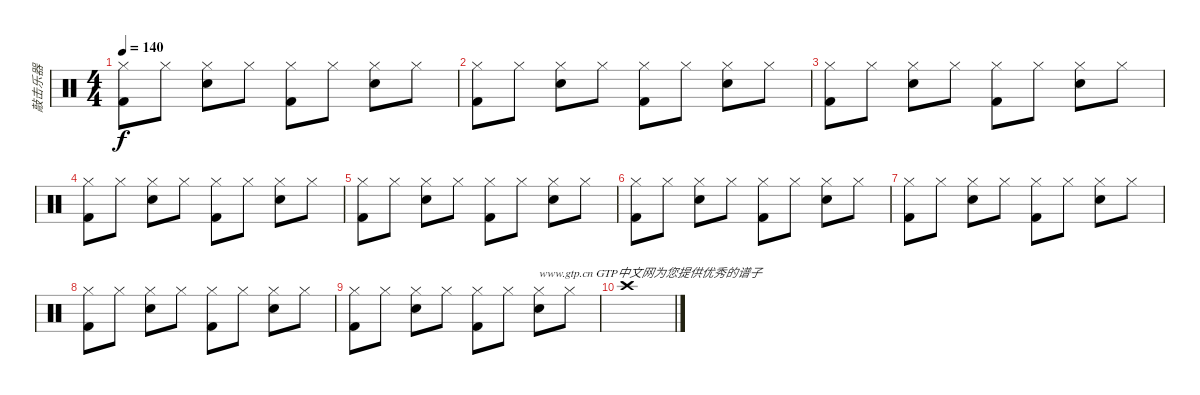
\track ("敲击乐器" "敲击乐器") {instrument percussion}
\staff {score}
\articulation defaults
\ts (4 4)
\tempo 140
\clef neutral
\ks c
("Kick (hit) 2" "Hi-Hat (closed)").8{dy f} "Hi-Hat (closed)".8 ("Snare (hit) 2" "Hi-Hat (closed)").8 "Hi-Hat (closed)".8 ("Kick (hit) 2" "Hi-Hat (closed)").8 "Hi-Hat (closed)".8 ("Snare (hit) 2" "Hi-Hat (closed)").8 "Hi-Hat (closed)".8 |
("Kick (hit) 2" "Hi-Hat (closed)").8 "Hi-Hat (closed)".8 ("Snare (hit) 2" "Hi-Hat (closed)").8 "Hi-Hat (closed)".8 ("Kick (hit) 2" "Hi-Hat (closed)").8 "Hi-Hat (closed)".8 ("Snare (hit) 2" "Hi-Hat (closed)").8 "Hi-Hat (closed)".8 |
("Kick (hit) 2" "Hi-Hat (closed)").8 "Hi-Hat (closed)".8 ("Snare (hit) 2" "Hi-Hat (closed)").8 "Hi-Hat (closed)".8 ("Kick (hit) 2" "Hi-Hat (closed)").8 "Hi-Hat (closed)".8 ("Snare (hit) 2" "Hi-Hat (closed)").8 "Hi-Hat (closed)".8 |
("Kick (hit) 2" "Hi-Hat (closed)").8 "Hi-Hat (closed)".8 ("Snare (hit) 2" "Hi-Hat (closed)").8 "Hi-Hat (closed)".8 ("Kick (hit) 2" "Hi-Hat (closed)").8 "Hi-Hat (closed)".8 ("Snare (hit) 2" "Hi-Hat (closed)").8 "Hi-Hat (closed)".8 |
("Kick (hit) 2" "Hi-Hat (closed)").8 "Hi-Hat (closed)".8 ("Snare (hit) 2" "Hi-Hat (closed)").8 "Hi-Hat (closed)".8 ("Kick (hit) 2" "Hi-Hat (closed)").8 "Hi-Hat (closed)".8 ("Snare (hit) 2" "Hi-Hat (closed)").8 "Hi-Hat (closed)".8 |
("Kick (hit) 2" "Hi-Hat (closed)").8 "Hi-Hat (closed)".8 ("Snare (hit) 2" "Hi-Hat (closed)").8 "Hi-Hat (closed)".8 ("Kick (hit) 2" "Hi-Hat (closed)").8 "Hi-Hat (closed)".8 ("Snare (hit) 2" "Hi-Hat (closed)").8 "Hi-Hat (closed)".8 |
("Kick (hit) 2" "Hi-Hat (closed)").8 "Hi-Hat (closed)".8 ("Snare (hit) 2" "Hi-Hat (closed)").8 "Hi-Hat (closed)".8 ("Kick (hit) 2" "Hi-Hat (closed)").8 "Hi-Hat (closed)".8 ("Snare (hit) 2" "Hi-Hat (closed)").8 "Hi-Hat (closed)".8 |
("Kick (hit) 2" "Hi-Hat (closed)").8 "Hi-Hat (closed)".8 ("Snare (hit) 2" "Hi-Hat (closed)").8 "Hi-Hat (closed)".8 ("Kick (hit) 2" "Hi-Hat (closed)").8 "Hi-Hat (closed)".8 ("Snare (hit) 2" "Hi-Hat (closed)").8 "Hi-Hat (closed)".8 |
("Kick (hit) 2" "Hi-Hat (closed)").8 "Hi-Hat (closed)".8 ("Snare (hit) 2" "Hi-Hat (closed)").8 "Hi-Hat (closed)".8 ("Kick (hit) 2" "Hi-Hat (closed)").8 "Hi-Hat (closed)".8 ("Snare (hit) 2" "Hi-Hat (closed)").8{txt "www.gtp.cn GTP中文网为您提供优秀的谱子"} "Hi-Hat (closed)".8 |
"Crash high (hit)".1
